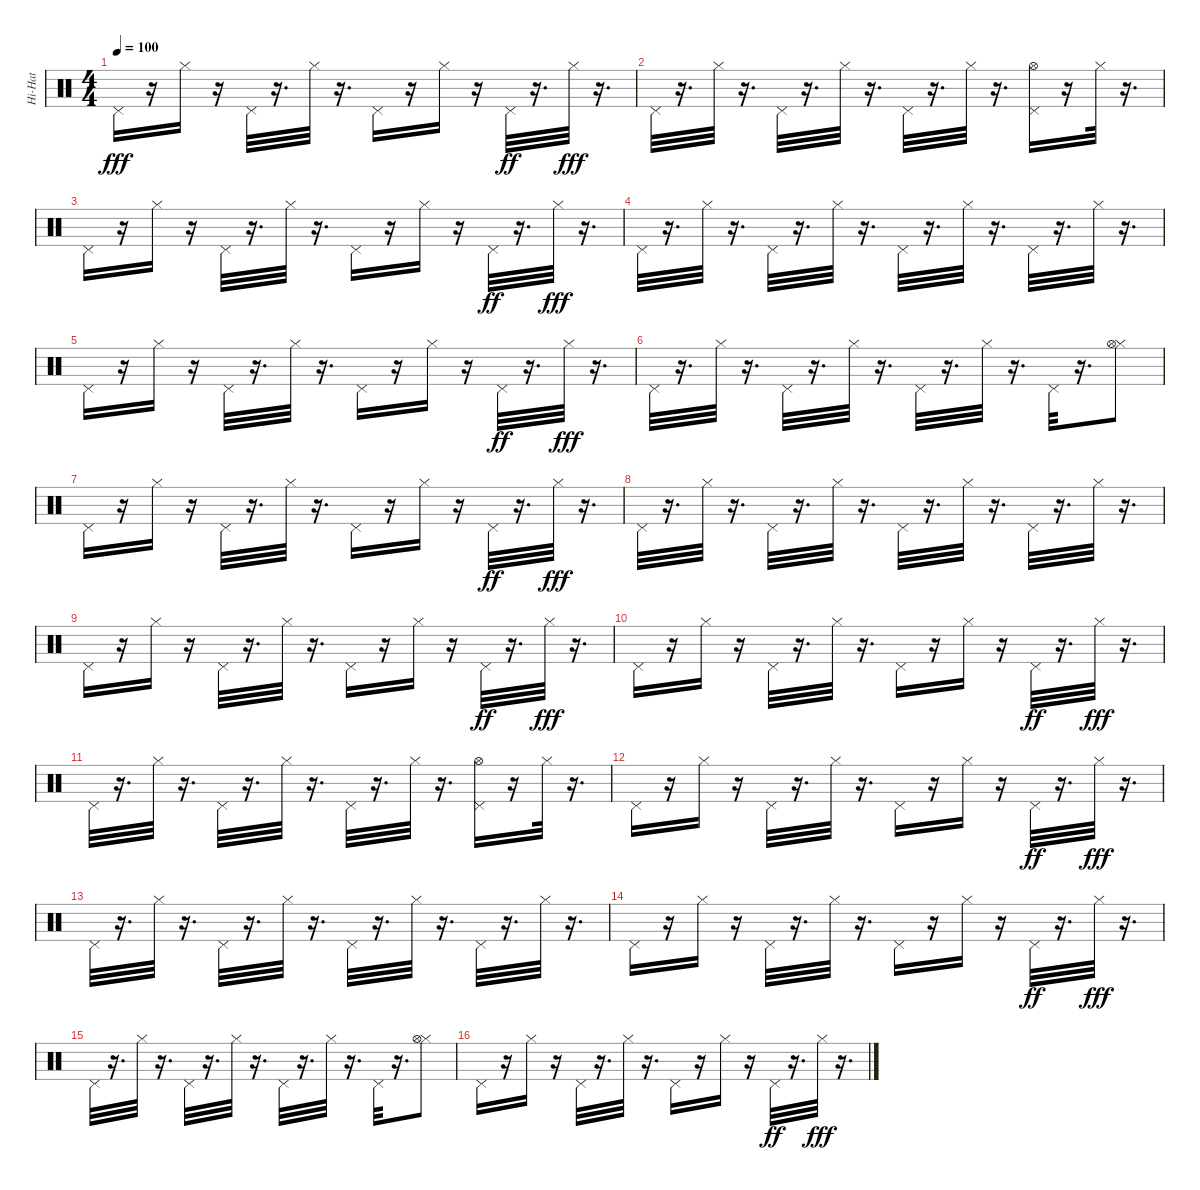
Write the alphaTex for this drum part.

\track ("Hi-Hat" "Hi-Hat") {instrument percussion}
\staff {score}
\articulation defaults
\ts (4 4)
\tempo 100
\clef neutral
\ks c "Pedal Hi-Hat (hit)".16{dy fff}
r.16 "Hi-Hat (closed)".16 r.16 "Pedal Hi-Hat (hit)".32 r.16{d} "Hi-Hat (closed)".32 r.16{d} "Pedal Hi-Hat (hit)".16 r.16 "Hi-Hat (closed)".16 r.16 "Pedal Hi-Hat (hit)".32{dy ff} r.16{d} "Hi-Hat (closed)".32{dy fff} r.16{d} |
"Pedal Hi-Hat (hit)".32 r.16{d} "Hi-Hat (closed)".32 r.16{d} "Pedal Hi-Hat (hit)".32 r.16{d} "Hi-Hat (closed)".32 r.16{d} "Pedal Hi-Hat (hit)".32 r.16{d} "Hi-Hat (closed)".32 r.16{d} ("Pedal Hi-Hat (hit)" "Hi-Hat (open)").16 r.16 "Hi-Hat (closed)".32 r.16{d} |
"Pedal Hi-Hat (hit)".16 r.16 "Hi-Hat (closed)".16 r.16 "Pedal Hi-Hat (hit)".32 r.16{d} "Hi-Hat (closed)".32 r.16{d} "Pedal Hi-Hat (hit)".16 r.16 "Hi-Hat (closed)".16 r.16 "Pedal Hi-Hat (hit)".32{dy ff} r.16{d} "Hi-Hat (closed)".32{dy fff} r.16{d} |
"Pedal Hi-Hat (hit)".32 r.16{d} "Hi-Hat (closed)".32 r.16{d} "Pedal Hi-Hat (hit)".32 r.16{d} "Hi-Hat (closed)".32 r.16{d} "Pedal Hi-Hat (hit)".32 r.16{d} "Hi-Hat (closed)".32 r.16{d} "Pedal Hi-Hat (hit)".32 r.16{d} "Hi-Hat (closed)".32 r.16{d} |
"Pedal Hi-Hat (hit)".16 r.16 "Hi-Hat (closed)".16 r.16 "Pedal Hi-Hat (hit)".32 r.16{d} "Hi-Hat (closed)".32 r.16{d} "Pedal Hi-Hat (hit)".16 r.16 "Hi-Hat (closed)".16 r.16 "Pedal Hi-Hat (hit)".32{dy ff} r.16{d} "Hi-Hat (closed)".32{dy fff} r.16{d} |
"Pedal Hi-Hat (hit)".32 r.16{d} "Hi-Hat (closed)".32 r.16{d} "Pedal Hi-Hat (hit)".32 r.16{d} "Hi-Hat (closed)".32 r.16{d} "Pedal Hi-Hat (hit)".32 r.16{d} "Hi-Hat (closed)".32 r.16{d} "Pedal Hi-Hat (hit)".32 r.16{d} ("Hi-Hat (closed)" "Hi-Hat (open)").8 |
"Pedal Hi-Hat (hit)".16 r.16 "Hi-Hat (closed)".16 r.16 "Pedal Hi-Hat (hit)".32 r.16{d} "Hi-Hat (closed)".32 r.16{d} "Pedal Hi-Hat (hit)".16 r.16 "Hi-Hat (closed)".16 r.16 "Pedal Hi-Hat (hit)".32{dy ff} r.16{d} "Hi-Hat (closed)".32{dy fff} r.16{d} |
"Pedal Hi-Hat (hit)".32 r.16{d} "Hi-Hat (closed)".32 r.16{d} "Pedal Hi-Hat (hit)".32 r.16{d} "Hi-Hat (closed)".32 r.16{d} "Pedal Hi-Hat (hit)".32 r.16{d} "Hi-Hat (closed)".32 r.16{d} "Pedal Hi-Hat (hit)".32 r.16{d} "Hi-Hat (closed)".32 r.16{d} |
"Pedal Hi-Hat (hit)".16 r.16 "Hi-Hat (closed)".16 r.16 "Pedal Hi-Hat (hit)".32 r.16{d} "Hi-Hat (closed)".32 r.16{d} "Pedal Hi-Hat (hit)".16 r.16 "Hi-Hat (closed)".16 r.16 "Pedal Hi-Hat (hit)".32{dy ff} r.16{d} "Hi-Hat (closed)".32{dy fff} r.16{d} |
"Pedal Hi-Hat (hit)".16 r.16 "Hi-Hat (closed)".16 r.16 "Pedal Hi-Hat (hit)".32 r.16{d} "Hi-Hat (closed)".32 r.16{d} "Pedal Hi-Hat (hit)".16 r.16 "Hi-Hat (closed)".16 r.16 "Pedal Hi-Hat (hit)".32{dy ff} r.16{d} "Hi-Hat (closed)".32{dy fff} r.16{d} |
"Pedal Hi-Hat (hit)".32 r.16{d} "Hi-Hat (closed)".32 r.16{d} "Pedal Hi-Hat (hit)".32 r.16{d} "Hi-Hat (closed)".32 r.16{d} "Pedal Hi-Hat (hit)".32 r.16{d} "Hi-Hat (closed)".32 r.16{d} ("Pedal Hi-Hat (hit)" "Hi-Hat (open)").16 r.16 "Hi-Hat (closed)".32 r.16{d} |
"Pedal Hi-Hat (hit)".16 r.16 "Hi-Hat (closed)".16 r.16 "Pedal Hi-Hat (hit)".32 r.16{d} "Hi-Hat (closed)".32 r.16{d} "Pedal Hi-Hat (hit)".16 r.16 "Hi-Hat (closed)".16 r.16 "Pedal Hi-Hat (hit)".32{dy ff} r.16{d} "Hi-Hat (closed)".32{dy fff} r.16{d} |
"Pedal Hi-Hat (hit)".32 r.16{d} "Hi-Hat (closed)".32 r.16{d} "Pedal Hi-Hat (hit)".32 r.16{d} "Hi-Hat (closed)".32 r.16{d} "Pedal Hi-Hat (hit)".32 r.16{d} "Hi-Hat (closed)".32 r.16{d} "Pedal Hi-Hat (hit)".32 r.16{d} "Hi-Hat (closed)".32 r.16{d} |
"Pedal Hi-Hat (hit)".16 r.16 "Hi-Hat (closed)".16 r.16 "Pedal Hi-Hat (hit)".32 r.16{d} "Hi-Hat (closed)".32 r.16{d} "Pedal Hi-Hat (hit)".16 r.16 "Hi-Hat (closed)".16 r.16 "Pedal Hi-Hat (hit)".32{dy ff} r.16{d} "Hi-Hat (closed)".32{dy fff} r.16{d} |
"Pedal Hi-Hat (hit)".32 r.16{d} "Hi-Hat (closed)".32 r.16{d} "Pedal Hi-Hat (hit)".32 r.16{d} "Hi-Hat (closed)".32 r.16{d} "Pedal Hi-Hat (hit)".32 r.16{d} "Hi-Hat (closed)".32 r.16{d} "Pedal Hi-Hat (hit)".32 r.16{d} ("Hi-Hat (closed)" "Hi-Hat (open)").8 |
"Pedal Hi-Hat (hit)".16 r.16 "Hi-Hat (closed)".16 r.16 "Pedal Hi-Hat (hit)".32 r.16{d} "Hi-Hat (closed)".32 r.16{d} "Pedal Hi-Hat (hit)".16 r.16 "Hi-Hat (closed)".16 r.16 "Pedal Hi-Hat (hit)".32{dy ff} r.16{d} "Hi-Hat (closed)".32{dy fff} r.16{d}
